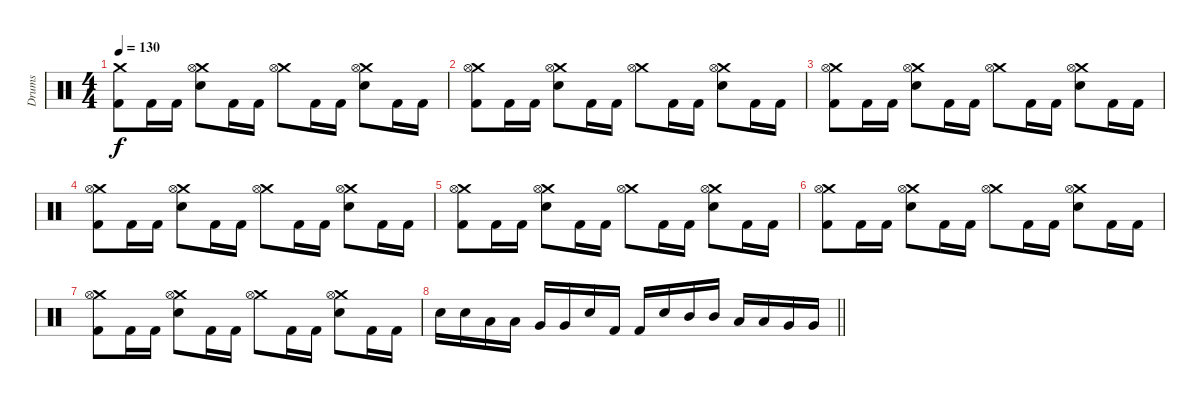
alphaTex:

\track ("Drums" "Drums") {instrument percussion}
\staff {score}
\articulation defaults
\ts (4 4)
\section ("" "")
\tempo 130
\clef neutral
\ks c
("Crash medium (hit)" "Kick (hit) 2").8{dy f} "Kick (hit) 2".16 "Kick (hit) 2".16 ("Crash medium (hit)" "Hi-Hat (open)" "Electric Snare (hit)").8 "Kick (hit) 2".16 "Kick (hit) 2".16 ("Crash medium (hit)" "Hi-Hat (open)").8 "Kick (hit) 2".16 "Kick (hit) 2".16 ("Crash medium (hit)" "Hi-Hat (open)" "Electric Snare (hit)").8 "Kick (hit) 2".16 "Kick (hit) 2".16 |
("Crash medium (hit)" "Hi-Hat (open)" "Kick (hit) 2").8 "Kick (hit) 2".16 "Kick (hit) 2".16 ("Crash medium (hit)" "Hi-Hat (open)" "Electric Snare (hit)").8 "Kick (hit) 2".16 "Kick (hit) 2".16 ("Crash medium (hit)" "Hi-Hat (open)").8 "Kick (hit) 2".16 "Kick (hit) 2".16 ("Crash medium (hit)" "Hi-Hat (open)" "Electric Snare (hit)").8 "Kick (hit) 2".16 "Kick (hit) 2".16 |
("Crash medium (hit)" "Hi-Hat (open)" "Kick (hit) 2").8 "Kick (hit) 2".16 "Kick (hit) 2".16 ("Crash medium (hit)" "Hi-Hat (open)" "Electric Snare (hit)").8 "Kick (hit) 2".16 "Kick (hit) 2".16 ("Crash medium (hit)" "Hi-Hat (open)").8 "Kick (hit) 2".16 "Kick (hit) 2".16 ("Crash medium (hit)" "Hi-Hat (open)" "Electric Snare (hit)").8 "Kick (hit) 2".16 "Kick (hit) 2".16 |
("Crash medium (hit)" "Hi-Hat (open)" "Kick (hit) 2").8 "Kick (hit) 2".16 "Kick (hit) 2".16 ("Crash medium (hit)" "Hi-Hat (open)" "Electric Snare (hit)").8 "Kick (hit) 2".16 "Kick (hit) 2".16 ("Crash medium (hit)" "Hi-Hat (open)").8 "Kick (hit) 2".16 "Kick (hit) 2".16 ("Crash medium (hit)" "Hi-Hat (open)" "Electric Snare (hit)").8 "Kick (hit) 2".16 "Kick (hit) 2".16 |
("Crash medium (hit)" "Hi-Hat (open)" "Kick (hit) 2").8 "Kick (hit) 2".16 "Kick (hit) 2".16 ("Crash medium (hit)" "Hi-Hat (open)" "Electric Snare (hit)").8 "Kick (hit) 2".16 "Kick (hit) 2".16 ("Crash medium (hit)" "Hi-Hat (open)").8 "Kick (hit) 2".16 "Kick (hit) 2".16 ("Crash medium (hit)" "Hi-Hat (open)" "Electric Snare (hit)").8 "Kick (hit) 2".16 "Kick (hit) 2".16 |
("Crash medium (hit)" "Hi-Hat (open)" "Kick (hit) 2").8 "Kick (hit) 2".16 "Kick (hit) 2".16 ("Crash medium (hit)" "Hi-Hat (open)" "Electric Snare (hit)").8 "Kick (hit) 2".16 "Kick (hit) 2".16 ("Crash medium (hit)" "Hi-Hat (open)").8 "Kick (hit) 2".16 "Kick (hit) 2".16 ("Crash medium (hit)" "Hi-Hat (open)" "Electric Snare (hit)").8 "Kick (hit) 2".16 "Kick (hit) 2".16 |
("Crash medium (hit)" "Hi-Hat (open)" "Kick (hit) 2").8 "Kick (hit) 2".16 "Kick (hit) 2".16 ("Crash medium (hit)" "Hi-Hat (open)" "Electric Snare (hit)").8 "Kick (hit) 2".16 "Kick (hit) 2".16 ("Crash medium (hit)" "Hi-Hat (open)").8 "Kick (hit) 2".16 "Kick (hit) 2".16 ("Crash medium (hit)" "Hi-Hat (open)" "Electric Snare (hit)").8 "Kick (hit) 2".16 "Kick (hit) 2".16 |
\barLineRight lightlight "Electric Snare (hit)".16 "Electric Snare (hit)".16 "Low Tom (hit)".16 "Low Tom (hit)".16 "Very Low Tom (hit)".16 "Very Low Tom (hit)".16 "Electric Snare (hit)".16 "Kick (hit) 2".16 "Kick (hit) 2".16 "Electric Snare (hit)".16 "Mid Tom (hit)".16 "Mid Tom (hit)".16 "Low Tom (hit)".16 "Low Tom (hit)".16 "Very Low Tom (hit)".16 "Very Low Tom (hit)".16
